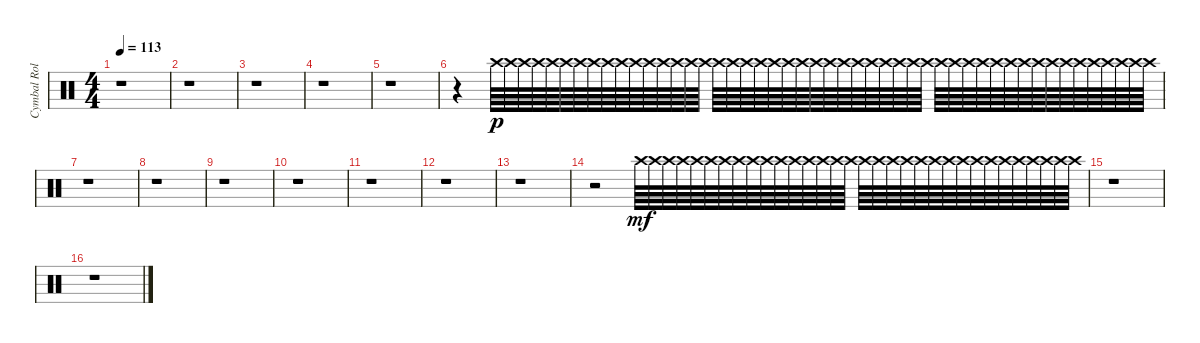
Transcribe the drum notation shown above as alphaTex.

\track ("Cymbal Rolls" "Cymbal Rol") {instrument percussion}
\staff {score}
\articulation defaults
\ts (4 4)
\tempo 113
\clef neutral
\ks c
r.1{dy p} |
r.1 |
r.1 |
r.1 |
r.1 |
r.4 "Crash high (hit)".64 "Crash high (hit)".64 "Crash high (hit)".64 "Crash high (hit)".64 "Crash high (hit)".64 "Crash high (hit)".64 "Crash high (hit)".64 "Crash high (hit)".64 "Crash high (hit)".64 "Crash high (hit)".64 "Crash high (hit)".64 "Crash high (hit)".64 "Crash high (hit)".64 "Crash high (hit)".64 "Crash high (hit)".64 "Crash high (hit)".64 "Crash high (hit)".64 "Crash high (hit)".64 "Crash high (hit)".64 "Crash high (hit)".64 "Crash high (hit)".64 "Crash high (hit)".64 "Crash high (hit)".64 "Crash high (hit)".64 "Crash high (hit)".64 "Crash high (hit)".64 "Crash high (hit)".64 "Crash high (hit)".64 "Crash high (hit)".64 "Crash high (hit)".64 "Crash high (hit)".64 "Crash high (hit)".64 "Crash high (hit)".64 "Crash high (hit)".64 "Crash high (hit)".64 "Crash high (hit)".64 "Crash high (hit)".64 "Crash high (hit)".64 "Crash high (hit)".64 "Crash high (hit)".64 "Crash high (hit)".64 "Crash high (hit)".64 "Crash high (hit)".64 "Crash high (hit)".64 "Crash high (hit)".64 "Crash high (hit)".64 "Crash high (hit)".64 "Crash high (hit)".64 |
r.1 |
r.1 |
r.1 |
r.1 |
r.1 |
r.1 |
r.1 |
r.2 "Crash high (hit)".64{dy mf} "Crash high (hit)".64 "Crash high (hit)".64 "Crash high (hit)".64 "Crash high (hit)".64 "Crash high (hit)".64 "Crash high (hit)".64 "Crash high (hit)".64 "Crash high (hit)".64 "Crash high (hit)".64 "Crash high (hit)".64 "Crash high (hit)".64 "Crash high (hit)".64 "Crash high (hit)".64 "Crash high (hit)".64 "Crash high (hit)".64 "Crash high (hit)".64 "Crash high (hit)".64 "Crash high (hit)".64 "Crash high (hit)".64 "Crash high (hit)".64 "Crash high (hit)".64 "Crash high (hit)".64 "Crash high (hit)".64 "Crash high (hit)".64 "Crash high (hit)".64 "Crash high (hit)".64 "Crash high (hit)".64 "Crash high (hit)".64 "Crash high (hit)".64 "Crash high (hit)".64 "Crash high (hit)".64 |
r.1 |
r.1
